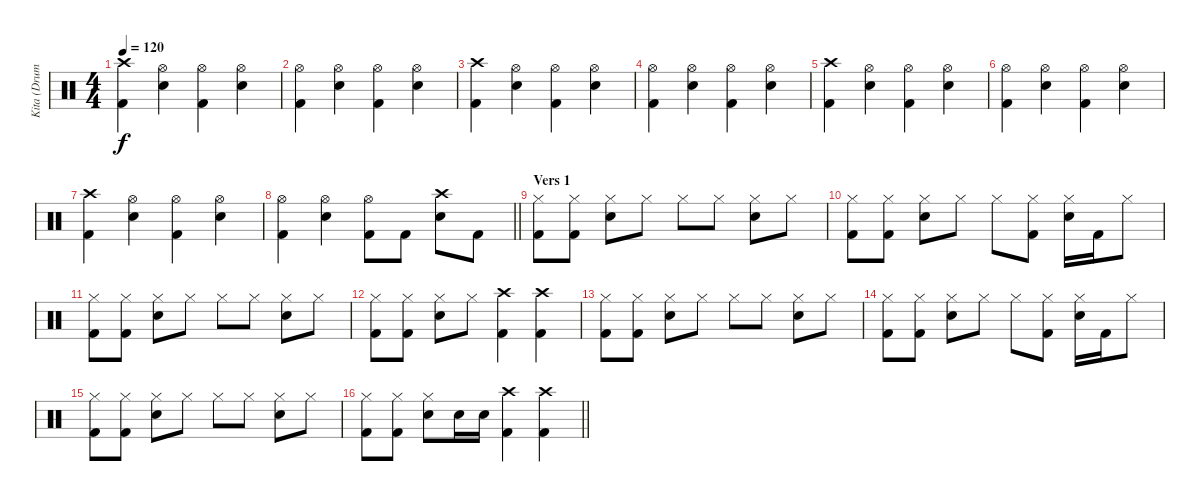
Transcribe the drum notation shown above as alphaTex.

\track ("Kita (Drums)" "Kita (Drum") {instrument percussion}
\staff {score}
\articulation defaults
\ts (4 4)
\tempo 120
\clef neutral
\ks c
("Crash high (hit)" "Kick (hit) 2").4{dy f} ("Hi-Hat (open)" "Snare (hit) 2").4 ("Hi-Hat (open)" "Kick (hit) 2").4 ("Hi-Hat (open)" "Snare (hit) 2").4 |
("Hi-Hat (open)" "Kick (hit) 2").4 ("Hi-Hat (open)" "Snare (hit) 2").4 ("Hi-Hat (open)" "Kick (hit) 2").4 ("Hi-Hat (open)" "Snare (hit) 2").4 |
("Crash high (hit)" "Kick (hit) 2").4 ("Hi-Hat (open)" "Snare (hit) 2").4 ("Hi-Hat (open)" "Kick (hit) 2").4 ("Hi-Hat (open)" "Snare (hit) 2").4 |
("Hi-Hat (open)" "Kick (hit) 2").4 ("Hi-Hat (open)" "Snare (hit) 2").4 ("Hi-Hat (open)" "Kick (hit) 2").4 ("Hi-Hat (open)" "Snare (hit) 2").4 |
("Crash high (hit)" "Kick (hit) 2").4 ("Hi-Hat (open)" "Snare (hit) 2").4 ("Hi-Hat (open)" "Kick (hit) 2").4 ("Hi-Hat (open)" "Snare (hit) 2").4 |
("Hi-Hat (open)" "Kick (hit) 2").4 ("Hi-Hat (open)" "Snare (hit) 2").4 ("Hi-Hat (open)" "Kick (hit) 2").4 ("Hi-Hat (open)" "Snare (hit) 2").4 |
("Crash high (hit)" "Kick (hit) 2").4 ("Hi-Hat (open)" "Snare (hit) 2").4 ("Hi-Hat (open)" "Kick (hit) 2").4 ("Hi-Hat (open)" "Snare (hit) 2").4 |
\barLineRight lightlight
("Hi-Hat (open)" "Kick (hit) 2").4 ("Hi-Hat (open)" "Snare (hit) 2").4 ("Hi-Hat (open)" "Kick (hit) 2").8 "Kick (hit) 2".8 ("Snare (hit) 2" "Crash high (hit)").8 "Kick (hit) 2".8 |
\section ("" "Vers 1")
("Hi-Hat (closed)" "Kick (hit) 2").8 ("Hi-Hat (closed)" "Kick (hit) 2").8 ("Hi-Hat (closed)" "Snare (hit) 2").8 "Hi-Hat (closed)".8 "Hi-Hat (closed)".8 "Hi-Hat (closed)".8 ("Hi-Hat (closed)" "Snare (hit) 2").8 "Hi-Hat (closed)".8 |
("Hi-Hat (closed)" "Kick (hit) 2").8 ("Hi-Hat (closed)" "Kick (hit) 2").8 ("Hi-Hat (closed)" "Snare (hit) 2").8 "Hi-Hat (closed)".8 "Hi-Hat (closed)".8 ("Hi-Hat (closed)" "Kick (hit) 2").8 ("Hi-Hat (closed)" "Snare (hit) 2").16 "Kick (hit) 2".16 "Hi-Hat (closed)".8 |
("Hi-Hat (closed)" "Kick (hit) 2").8 ("Hi-Hat (closed)" "Kick (hit) 2").8 ("Hi-Hat (closed)" "Snare (hit) 2").8 "Hi-Hat (closed)".8 "Hi-Hat (closed)".8 "Hi-Hat (closed)".8 ("Hi-Hat (closed)" "Snare (hit) 2").8 "Hi-Hat (closed)".8 |
("Hi-Hat (closed)" "Kick (hit) 2").8 ("Hi-Hat (closed)" "Kick (hit) 2").8 ("Hi-Hat (closed)" "Snare (hit) 2").8 "Hi-Hat (closed)".8 ("Kick (hit) 2" "Crash high (hit)").4 ("Kick (hit) 2" "Crash high (hit)").4 |
("Hi-Hat (closed)" "Kick (hit) 2").8 ("Hi-Hat (closed)" "Kick (hit) 2").8 ("Hi-Hat (closed)" "Snare (hit) 2").8 "Hi-Hat (closed)".8 "Hi-Hat (closed)".8 "Hi-Hat (closed)".8 ("Hi-Hat (closed)" "Snare (hit) 2").8 "Hi-Hat (closed)".8 |
("Hi-Hat (closed)" "Kick (hit) 2").8 ("Hi-Hat (closed)" "Kick (hit) 2").8 ("Hi-Hat (closed)" "Snare (hit) 2").8 "Hi-Hat (closed)".8 "Hi-Hat (closed)".8 ("Hi-Hat (closed)" "Kick (hit) 2").8 ("Hi-Hat (closed)" "Snare (hit) 2").16 "Kick (hit) 2".16 "Hi-Hat (closed)".8 |
("Hi-Hat (closed)" "Kick (hit) 2").8 ("Hi-Hat (closed)" "Kick (hit) 2").8 ("Hi-Hat (closed)" "Snare (hit) 2").8 "Hi-Hat (closed)".8 "Hi-Hat (closed)".8 "Hi-Hat (closed)".8 ("Hi-Hat (closed)" "Snare (hit) 2").8 "Hi-Hat (closed)".8 |
\barLineRight lightlight
("Hi-Hat (closed)" "Kick (hit) 2").8 ("Hi-Hat (closed)" "Kick (hit) 2").8 ("Hi-Hat (closed)" "Snare (hit) 2").8 "Snare (hit) 2".16 "Snare (hit) 2".16 ("Kick (hit) 2" "Crash high (hit)").4 ("Kick (hit) 2" "Crash high (hit)").4
